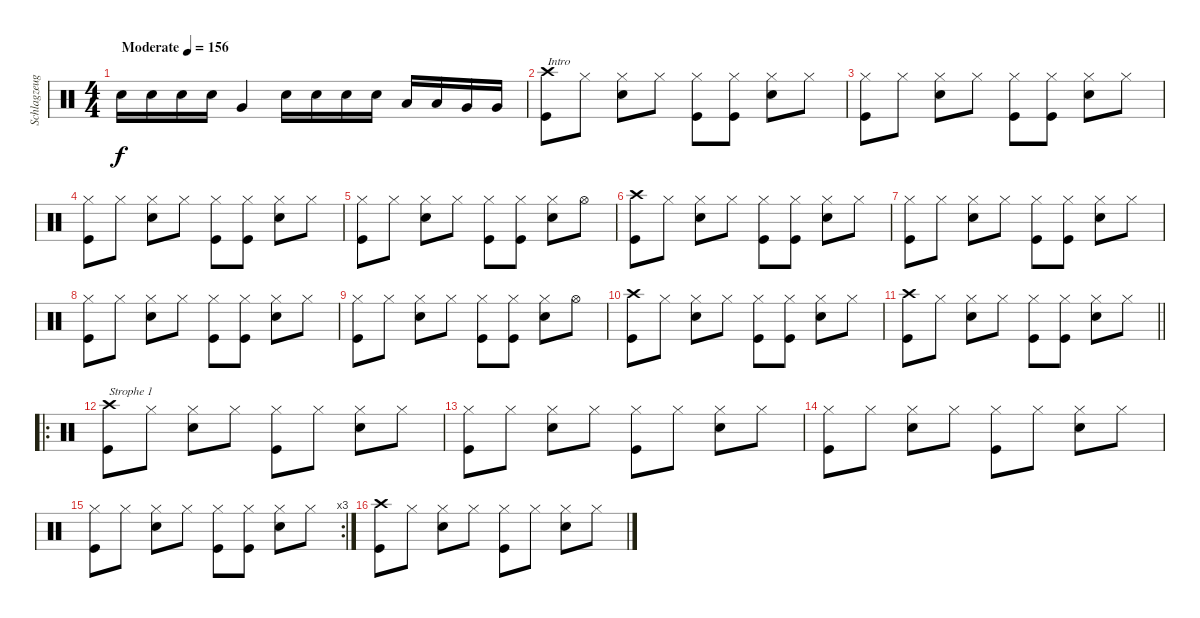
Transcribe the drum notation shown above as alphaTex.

\track ("Schlagzeug" "Schlagzeug") {instrument percussion}
\staff {score}
\articulation defaults
\ts (4 4)
\tempo (156 "Moderate")
\clef neutral
\ks c "Electric Snare (hit)".16{dy f} "Electric Snare (hit)".16 "Electric Snare (hit)".16 "Electric Snare (hit)".16 "Very Low Tom (hit)".4 "Electric Snare (hit)".16 "Electric Snare (hit)".16 "Electric Snare (hit)".16 "Electric Snare (hit)".16 "Low Tom (hit)".16 "Low Tom (hit)".16 "Very Low Tom (hit)".16 "Very Low Tom (hit)".16
|
("Crash high (hit)" "Kick (hit)").8{txt "Intro"} "Hi-Hat (closed)".8 ("Hi-Hat (closed)" "Electric Snare (hit)").8 "Hi-Hat (closed)".8 ("Hi-Hat (closed)" "Kick (hit)").8 ("Hi-Hat (closed)" "Kick (hit)").8 ("Hi-Hat (closed)" "Electric Snare (hit)").8 "Hi-Hat (closed)".8 |
("Hi-Hat (closed)" "Kick (hit)").8 "Hi-Hat (closed)".8 ("Hi-Hat (closed)" "Electric Snare (hit)").8 "Hi-Hat (closed)".8 ("Hi-Hat (closed)" "Kick (hit)").8 ("Hi-Hat (closed)" "Kick (hit)").8 ("Hi-Hat (closed)" "Electric Snare (hit)").8 "Hi-Hat (closed)".8 |
("Hi-Hat (closed)" "Kick (hit)").8 "Hi-Hat (closed)".8 ("Hi-Hat (closed)" "Electric Snare (hit)").8 "Hi-Hat (closed)".8 ("Hi-Hat (closed)" "Kick (hit)").8 ("Hi-Hat (closed)" "Kick (hit)").8 ("Hi-Hat (closed)" "Electric Snare (hit)").8 "Hi-Hat (closed)".8 |
("Hi-Hat (closed)" "Kick (hit)").8 "Hi-Hat (closed)".8 ("Hi-Hat (closed)" "Electric Snare (hit)").8 "Hi-Hat (closed)".8 ("Hi-Hat (closed)" "Kick (hit)").8 ("Hi-Hat (closed)" "Kick (hit)").8 ("Hi-Hat (closed)" "Electric Snare (hit)").8 "Hi-Hat (open)".8 |
("Crash high (hit)" "Kick (hit)").8 "Hi-Hat (closed)".8 ("Hi-Hat (closed)" "Electric Snare (hit)").8 "Hi-Hat (closed)".8 ("Hi-Hat (closed)" "Kick (hit)").8 ("Hi-Hat (closed)" "Kick (hit)").8 ("Hi-Hat (closed)" "Electric Snare (hit)").8 "Hi-Hat (closed)".8 |
("Hi-Hat (closed)" "Kick (hit)").8 "Hi-Hat (closed)".8 ("Hi-Hat (closed)" "Electric Snare (hit)").8 "Hi-Hat (closed)".8 ("Hi-Hat (closed)" "Kick (hit)").8 ("Hi-Hat (closed)" "Kick (hit)").8 ("Hi-Hat (closed)" "Electric Snare (hit)").8 "Hi-Hat (closed)".8 |
("Hi-Hat (closed)" "Kick (hit)").8 "Hi-Hat (closed)".8 ("Hi-Hat (closed)" "Electric Snare (hit)").8 "Hi-Hat (closed)".8 ("Hi-Hat (closed)" "Kick (hit)").8 ("Hi-Hat (closed)" "Kick (hit)").8 ("Hi-Hat (closed)" "Electric Snare (hit)").8 "Hi-Hat (closed)".8 |
("Hi-Hat (closed)" "Kick (hit)").8 "Hi-Hat (closed)".8 ("Hi-Hat (closed)" "Electric Snare (hit)").8 "Hi-Hat (closed)".8 ("Hi-Hat (closed)" "Kick (hit)").8 ("Hi-Hat (closed)" "Kick (hit)").8 ("Hi-Hat (closed)" "Electric Snare (hit)").8 "Hi-Hat (open)".8 |
("Crash high (hit)" "Kick (hit)").8 "Hi-Hat (closed)".8 ("Hi-Hat (closed)" "Electric Snare (hit)").8 "Hi-Hat (closed)".8 ("Hi-Hat (closed)" "Kick (hit)").8 ("Hi-Hat (closed)" "Kick (hit)").8 ("Hi-Hat (closed)" "Electric Snare (hit)").8 "Hi-Hat (closed)".8 |
\barLineRight lightlight
("Crash high (hit)" "Kick (hit)").8 "Hi-Hat (closed)".8 ("Hi-Hat (closed)" "Electric Snare (hit)").8 "Hi-Hat (closed)".8 ("Hi-Hat (closed)" "Kick (hit)").8 ("Hi-Hat (closed)" "Kick (hit)").8 ("Hi-Hat (closed)" "Electric Snare (hit)").8 "Hi-Hat (closed)".8 |
\ro
("Crash high (hit)" "Kick (hit)").8{txt "Strophe 1"} "Hi-Hat (closed)".8 ("Hi-Hat (closed)" "Electric Snare (hit)").8 "Hi-Hat (closed)".8 ("Hi-Hat (closed)" "Kick (hit)").8 "Hi-Hat (closed)".8 ("Hi-Hat (closed)" "Electric Snare (hit)").8 "Hi-Hat (closed)".8 |
("Hi-Hat (closed)" "Kick (hit)").8 "Hi-Hat (closed)".8 ("Hi-Hat (closed)" "Electric Snare (hit)").8 "Hi-Hat (closed)".8 ("Hi-Hat (closed)" "Kick (hit)").8 "Hi-Hat (closed)".8 ("Hi-Hat (closed)" "Electric Snare (hit)").8 "Hi-Hat (closed)".8 |
("Hi-Hat (closed)" "Kick (hit)").8 "Hi-Hat (closed)".8 ("Hi-Hat (closed)" "Electric Snare (hit)").8 "Hi-Hat (closed)".8 ("Hi-Hat (closed)" "Kick (hit)").8 "Hi-Hat (closed)".8 ("Hi-Hat (closed)" "Electric Snare (hit)").8 "Hi-Hat (closed)".8 |
\rc 3
("Hi-Hat (closed)" "Kick (hit)").8 "Hi-Hat (closed)".8 ("Hi-Hat (closed)" "Electric Snare (hit)").8 "Hi-Hat (closed)".8 ("Hi-Hat (closed)" "Kick (hit)").8 ("Hi-Hat (closed)" "Kick (hit)").8 ("Hi-Hat (closed)" "Electric Snare (hit)").8 "Hi-Hat (closed)".8 |
("Crash high (hit)" "Kick (hit)").8 "Hi-Hat (closed)".8 ("Hi-Hat (closed)" "Electric Snare (hit)").8 "Hi-Hat (closed)".8 ("Hi-Hat (closed)" "Kick (hit)").8 "Hi-Hat (closed)".8 ("Hi-Hat (closed)" "Electric Snare (hit)").8 "Hi-Hat (closed)".8
